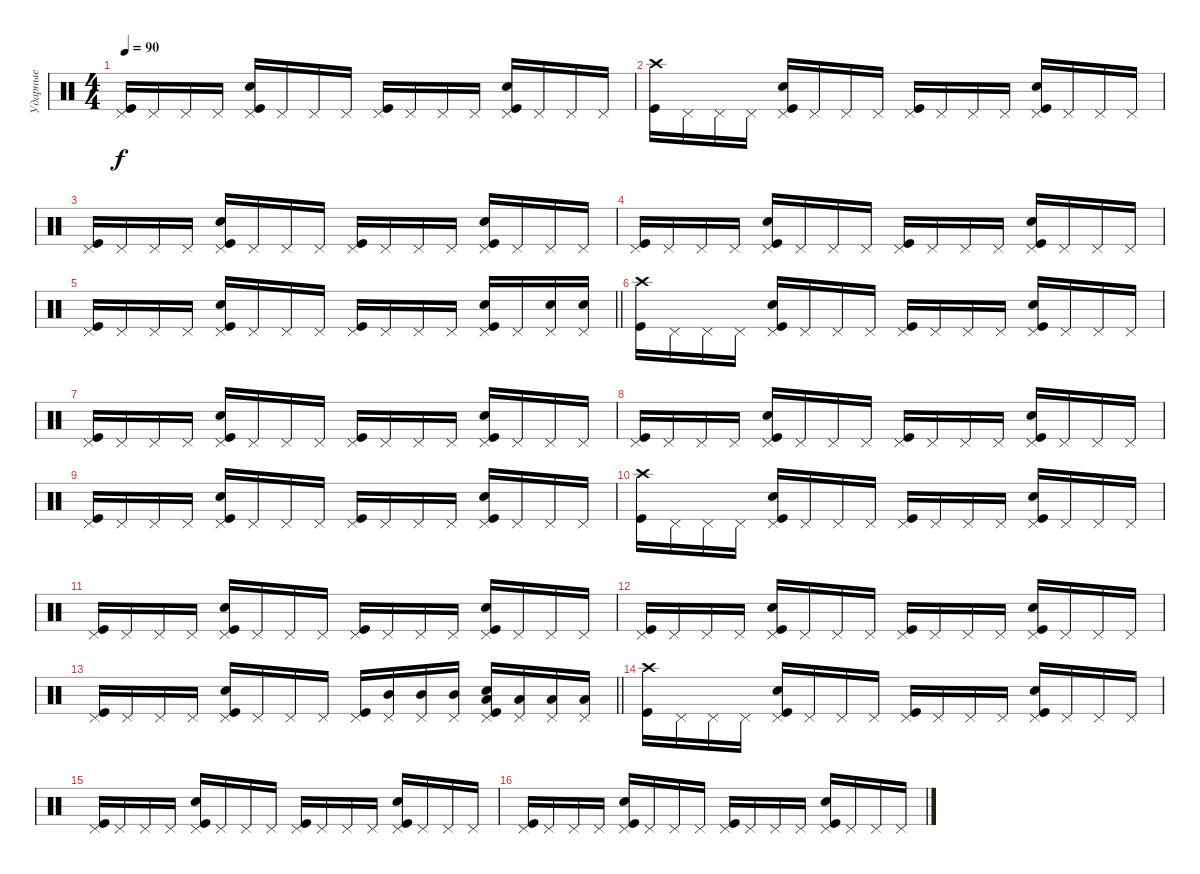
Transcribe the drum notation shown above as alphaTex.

\track ("Ударные" "Ударные") {instrument percussion}
\staff {score}
\articulation defaults
\ts (4 4)
\tempo 90
\clef neutral
\ks c
("Pedal Hi-Hat (hit)" "Kick (hit)").16{dy f} "Pedal Hi-Hat (hit)".16 "Pedal Hi-Hat (hit)".16 "Pedal Hi-Hat (hit)".16 ("Pedal Hi-Hat (hit)" "Kick (hit)" "Snare (hit) 2").16 "Pedal Hi-Hat (hit)".16 "Pedal Hi-Hat (hit)".16 "Pedal Hi-Hat (hit)".16 ("Pedal Hi-Hat (hit)" "Kick (hit)").16 "Pedal Hi-Hat (hit)".16 "Pedal Hi-Hat (hit)".16 "Pedal Hi-Hat (hit)".16 ("Pedal Hi-Hat (hit)" "Kick (hit)" "Snare (hit) 2").16 "Pedal Hi-Hat (hit)".16 "Pedal Hi-Hat (hit)".16 "Pedal Hi-Hat (hit)".16 |
("Crash high (hit)" "Kick (hit)").16 "Pedal Hi-Hat (hit)".16 "Pedal Hi-Hat (hit)".16 "Pedal Hi-Hat (hit)".16 ("Pedal Hi-Hat (hit)" "Kick (hit)" "Snare (hit) 2").16 "Pedal Hi-Hat (hit)".16 "Pedal Hi-Hat (hit)".16 "Pedal Hi-Hat (hit)".16 ("Pedal Hi-Hat (hit)" "Kick (hit)").16 "Pedal Hi-Hat (hit)".16 "Pedal Hi-Hat (hit)".16 "Pedal Hi-Hat (hit)".16 ("Pedal Hi-Hat (hit)" "Kick (hit)" "Snare (hit) 2").16 "Pedal Hi-Hat (hit)".16 "Pedal Hi-Hat (hit)".16 "Pedal Hi-Hat (hit)".16 |
("Pedal Hi-Hat (hit)" "Kick (hit)").16 "Pedal Hi-Hat (hit)".16 "Pedal Hi-Hat (hit)".16 "Pedal Hi-Hat (hit)".16 ("Pedal Hi-Hat (hit)" "Kick (hit)" "Snare (hit) 2").16 "Pedal Hi-Hat (hit)".16 "Pedal Hi-Hat (hit)".16 "Pedal Hi-Hat (hit)".16 ("Pedal Hi-Hat (hit)" "Kick (hit)").16 "Pedal Hi-Hat (hit)".16 "Pedal Hi-Hat (hit)".16 "Pedal Hi-Hat (hit)".16 ("Pedal Hi-Hat (hit)" "Kick (hit)" "Snare (hit) 2").16 "Pedal Hi-Hat (hit)".16 "Pedal Hi-Hat (hit)".16 "Pedal Hi-Hat (hit)".16 |
("Pedal Hi-Hat (hit)" "Kick (hit)").16 "Pedal Hi-Hat (hit)".16 "Pedal Hi-Hat (hit)".16 "Pedal Hi-Hat (hit)".16 ("Pedal Hi-Hat (hit)" "Kick (hit)" "Snare (hit) 2").16 "Pedal Hi-Hat (hit)".16 "Pedal Hi-Hat (hit)".16 "Pedal Hi-Hat (hit)".16 ("Pedal Hi-Hat (hit)" "Kick (hit)").16 "Pedal Hi-Hat (hit)".16 "Pedal Hi-Hat (hit)".16 "Pedal Hi-Hat (hit)".16 ("Pedal Hi-Hat (hit)" "Kick (hit)" "Snare (hit) 2").16 "Pedal Hi-Hat (hit)".16 "Pedal Hi-Hat (hit)".16 "Pedal Hi-Hat (hit)".16 |
\barLineRight lightlight
("Pedal Hi-Hat (hit)" "Kick (hit)").16 "Pedal Hi-Hat (hit)".16 "Pedal Hi-Hat (hit)".16 "Pedal Hi-Hat (hit)".16 ("Pedal Hi-Hat (hit)" "Kick (hit)" "Snare (hit) 2").16 "Pedal Hi-Hat (hit)".16 "Pedal Hi-Hat (hit)".16 "Pedal Hi-Hat (hit)".16 ("Pedal Hi-Hat (hit)" "Kick (hit)").16 "Pedal Hi-Hat (hit)".16 "Pedal Hi-Hat (hit)".16 "Pedal Hi-Hat (hit)".16 ("Pedal Hi-Hat (hit)" "Kick (hit)" "Snare (hit) 2").16 "Pedal Hi-Hat (hit)".16 ("Pedal Hi-Hat (hit)" "Snare (hit) 2").16 ("Pedal Hi-Hat (hit)" "Snare (hit) 2").16 |
\section ("" "")
("Crash high (hit)" "Kick (hit)").16 "Pedal Hi-Hat (hit)".16 "Pedal Hi-Hat (hit)".16 "Pedal Hi-Hat (hit)".16 ("Pedal Hi-Hat (hit)" "Kick (hit)" "Snare (hit) 2").16 "Pedal Hi-Hat (hit)".16 "Pedal Hi-Hat (hit)".16 "Pedal Hi-Hat (hit)".16 ("Pedal Hi-Hat (hit)" "Kick (hit)").16 "Pedal Hi-Hat (hit)".16 "Pedal Hi-Hat (hit)".16 "Pedal Hi-Hat (hit)".16 ("Pedal Hi-Hat (hit)" "Kick (hit)" "Snare (hit) 2").16 "Pedal Hi-Hat (hit)".16 "Pedal Hi-Hat (hit)".16 "Pedal Hi-Hat (hit)".16 |
("Pedal Hi-Hat (hit)" "Kick (hit)").16 "Pedal Hi-Hat (hit)".16 "Pedal Hi-Hat (hit)".16 "Pedal Hi-Hat (hit)".16 ("Pedal Hi-Hat (hit)" "Kick (hit)" "Snare (hit) 2").16 "Pedal Hi-Hat (hit)".16 "Pedal Hi-Hat (hit)".16 "Pedal Hi-Hat (hit)".16 ("Pedal Hi-Hat (hit)" "Kick (hit)").16 "Pedal Hi-Hat (hit)".16 "Pedal Hi-Hat (hit)".16 "Pedal Hi-Hat (hit)".16 ("Pedal Hi-Hat (hit)" "Kick (hit)" "Snare (hit) 2").16 "Pedal Hi-Hat (hit)".16 "Pedal Hi-Hat (hit)".16 "Pedal Hi-Hat (hit)".16 |
("Pedal Hi-Hat (hit)" "Kick (hit)").16 "Pedal Hi-Hat (hit)".16 "Pedal Hi-Hat (hit)".16 "Pedal Hi-Hat (hit)".16 ("Pedal Hi-Hat (hit)" "Kick (hit)" "Snare (hit) 2").16 "Pedal Hi-Hat (hit)".16 "Pedal Hi-Hat (hit)".16 "Pedal Hi-Hat (hit)".16 ("Pedal Hi-Hat (hit)" "Kick (hit)").16 "Pedal Hi-Hat (hit)".16 "Pedal Hi-Hat (hit)".16 "Pedal Hi-Hat (hit)".16 ("Pedal Hi-Hat (hit)" "Kick (hit)" "Snare (hit) 2").16 "Pedal Hi-Hat (hit)".16 "Pedal Hi-Hat (hit)".16 "Pedal Hi-Hat (hit)".16 |
("Pedal Hi-Hat (hit)" "Kick (hit)").16 "Pedal Hi-Hat (hit)".16 "Pedal Hi-Hat (hit)".16 "Pedal Hi-Hat (hit)".16 ("Pedal Hi-Hat (hit)" "Kick (hit)" "Snare (hit) 2").16 "Pedal Hi-Hat (hit)".16 "Pedal Hi-Hat (hit)".16 "Pedal Hi-Hat (hit)".16 ("Pedal Hi-Hat (hit)" "Kick (hit)").16 "Pedal Hi-Hat (hit)".16 "Pedal Hi-Hat (hit)".16 "Pedal Hi-Hat (hit)".16 ("Pedal Hi-Hat (hit)" "Kick (hit)" "Snare (hit) 2").16 "Pedal Hi-Hat (hit)".16 "Pedal Hi-Hat (hit)".16 "Pedal Hi-Hat (hit)".16 |
("Crash high (hit)" "Kick (hit)").16 "Pedal Hi-Hat (hit)".16 "Pedal Hi-Hat (hit)".16 "Pedal Hi-Hat (hit)".16 ("Pedal Hi-Hat (hit)" "Kick (hit)" "Snare (hit) 2").16 "Pedal Hi-Hat (hit)".16 "Pedal Hi-Hat (hit)".16 "Pedal Hi-Hat (hit)".16 ("Pedal Hi-Hat (hit)" "Kick (hit)").16 "Pedal Hi-Hat (hit)".16 "Pedal Hi-Hat (hit)".16 "Pedal Hi-Hat (hit)".16 ("Pedal Hi-Hat (hit)" "Kick (hit)" "Snare (hit) 2").16 "Pedal Hi-Hat (hit)".16 "Pedal Hi-Hat (hit)".16 "Pedal Hi-Hat (hit)".16 |
("Pedal Hi-Hat (hit)" "Kick (hit)").16 "Pedal Hi-Hat (hit)".16 "Pedal Hi-Hat (hit)".16 "Pedal Hi-Hat (hit)".16 ("Pedal Hi-Hat (hit)" "Kick (hit)" "Snare (hit) 2").16 "Pedal Hi-Hat (hit)".16 "Pedal Hi-Hat (hit)".16 "Pedal Hi-Hat (hit)".16 ("Pedal Hi-Hat (hit)" "Kick (hit)").16 "Pedal Hi-Hat (hit)".16 "Pedal Hi-Hat (hit)".16 "Pedal Hi-Hat (hit)".16 ("Pedal Hi-Hat (hit)" "Kick (hit)" "Snare (hit) 2").16 "Pedal Hi-Hat (hit)".16 "Pedal Hi-Hat (hit)".16 "Pedal Hi-Hat (hit)".16 |
("Pedal Hi-Hat (hit)" "Kick (hit)").16 "Pedal Hi-Hat (hit)".16 "Pedal Hi-Hat (hit)".16 "Pedal Hi-Hat (hit)".16 ("Pedal Hi-Hat (hit)" "Kick (hit)" "Snare (hit) 2").16 "Pedal Hi-Hat (hit)".16 "Pedal Hi-Hat (hit)".16 "Pedal Hi-Hat (hit)".16 ("Pedal Hi-Hat (hit)" "Kick (hit)").16 "Pedal Hi-Hat (hit)".16 "Pedal Hi-Hat (hit)".16 "Pedal Hi-Hat (hit)".16 ("Pedal Hi-Hat (hit)" "Kick (hit)" "Snare (hit) 2").16 "Pedal Hi-Hat (hit)".16 "Pedal Hi-Hat (hit)".16 "Pedal Hi-Hat (hit)".16 |
\barLineRight lightlight
("Pedal Hi-Hat (hit)" "Kick (hit)").16 "Pedal Hi-Hat (hit)".16 "Pedal Hi-Hat (hit)".16 "Pedal Hi-Hat (hit)".16 ("Pedal Hi-Hat (hit)" "Kick (hit)" "Snare (hit) 2").16 "Pedal Hi-Hat (hit)".16 "Pedal Hi-Hat (hit)".16 "Pedal Hi-Hat (hit)".16 ("Pedal Hi-Hat (hit)" "Kick (hit)").16 ("Pedal Hi-Hat (hit)" "Mid Tom (hit)").16 ("Pedal Hi-Hat (hit)" "Mid Tom (hit)").16 ("Pedal Hi-Hat (hit)" "Mid Tom (hit)").16 ("Pedal Hi-Hat (hit)" "Kick (hit)" "Snare (hit) 2" "Low Tom (hit)").16 ("Pedal Hi-Hat (hit)" "Low Tom (hit)").16 ("Pedal Hi-Hat (hit)" "Low Tom (hit)").16 ("Pedal Hi-Hat (hit)" "Low Tom (hit)").16 |
\section ("" "")
("Crash high (hit)" "Kick (hit)").16 "Pedal Hi-Hat (hit)".16 "Pedal Hi-Hat (hit)".16 "Pedal Hi-Hat (hit)".16 ("Pedal Hi-Hat (hit)" "Kick (hit)" "Snare (hit) 2").16 "Pedal Hi-Hat (hit)".16 "Pedal Hi-Hat (hit)".16 "Pedal Hi-Hat (hit)".16 ("Pedal Hi-Hat (hit)" "Kick (hit)").16 "Pedal Hi-Hat (hit)".16 "Pedal Hi-Hat (hit)".16 "Pedal Hi-Hat (hit)".16 ("Pedal Hi-Hat (hit)" "Kick (hit)" "Snare (hit) 2").16 "Pedal Hi-Hat (hit)".16 "Pedal Hi-Hat (hit)".16 "Pedal Hi-Hat (hit)".16 |
("Pedal Hi-Hat (hit)" "Kick (hit)").16 "Pedal Hi-Hat (hit)".16 "Pedal Hi-Hat (hit)".16 "Pedal Hi-Hat (hit)".16 ("Pedal Hi-Hat (hit)" "Kick (hit)" "Snare (hit) 2").16 "Pedal Hi-Hat (hit)".16 "Pedal Hi-Hat (hit)".16 "Pedal Hi-Hat (hit)".16 ("Pedal Hi-Hat (hit)" "Kick (hit)").16 "Pedal Hi-Hat (hit)".16 "Pedal Hi-Hat (hit)".16 "Pedal Hi-Hat (hit)".16 ("Pedal Hi-Hat (hit)" "Kick (hit)" "Snare (hit) 2").16 "Pedal Hi-Hat (hit)".16 "Pedal Hi-Hat (hit)".16 "Pedal Hi-Hat (hit)".16 |
("Pedal Hi-Hat (hit)" "Kick (hit)").16 "Pedal Hi-Hat (hit)".16 "Pedal Hi-Hat (hit)".16 "Pedal Hi-Hat (hit)".16 ("Pedal Hi-Hat (hit)" "Kick (hit)" "Snare (hit) 2").16 "Pedal Hi-Hat (hit)".16 "Pedal Hi-Hat (hit)".16 "Pedal Hi-Hat (hit)".16 ("Pedal Hi-Hat (hit)" "Kick (hit)").16 "Pedal Hi-Hat (hit)".16 "Pedal Hi-Hat (hit)".16 "Pedal Hi-Hat (hit)".16 ("Pedal Hi-Hat (hit)" "Kick (hit)" "Snare (hit) 2").16 "Pedal Hi-Hat (hit)".16 "Pedal Hi-Hat (hit)".16 "Pedal Hi-Hat (hit)".16
